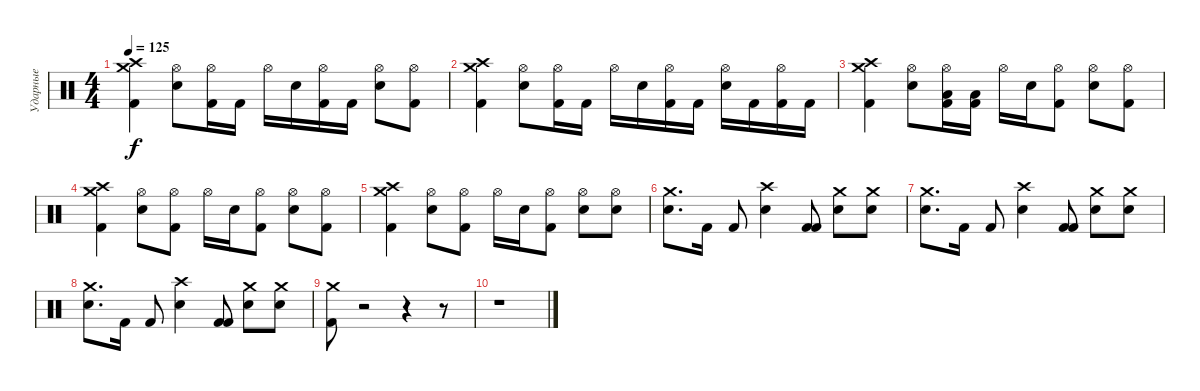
\track ("Ударные" "Ударные") {instrument percussion}
\staff {score}
\articulation defaults
\ts (4 4)
\tempo 125
\clef neutral
\ks c
("Crash high (hit)" "Crash medium (hit)" "Kick (hit) 2").4{dy f} ("Hi-Hat (open)" "Snare (hit) 2").8 ("Hi-Hat (open)" "Kick (hit) 2").16 "Kick (hit) 2".16 "Hi-Hat (open)".16 "Snare (hit) 2".16 ("Hi-Hat (open)" "Kick (hit) 2").16 "Kick (hit) 2".16 ("Hi-Hat (open)" "Snare (hit) 2").8 ("Hi-Hat (open)" "Kick (hit) 2").8 |
("Crash high (hit)" "Crash medium (hit)" "Kick (hit) 2").4 ("Hi-Hat (open)" "Snare (hit) 2").8 ("Hi-Hat (open)" "Kick (hit) 2").16 "Kick (hit) 2".16 "Hi-Hat (open)".16 "Snare (hit) 2".16 ("Hi-Hat (open)" "Kick (hit) 2").16 "Kick (hit) 2".16 ("Hi-Hat (open)" "Snare (hit) 2").16 "Kick (hit) 2".16 ("Hi-Hat (open)" "Kick (hit) 2").16 "Kick (hit) 2".16 |
("Crash high (hit)" "Crash medium (hit)" "Kick (hit) 2").4 ("Hi-Hat (open)" "Snare (hit) 2").8 ("Hi-Hat (open)" "Low Tom (hit)" "Kick (hit) 2").16 ("Low Floor Tom (hit)" "Kick (hit) 2").16 "Hi-Hat (open)".16 "Snare (hit) 2".16 ("Hi-Hat (open)" "Kick (hit) 2").8 ("Hi-Hat (open)" "Snare (hit) 2").8 ("Hi-Hat (open)" "Kick (hit) 2").8 |
("Crash medium (hit)" "Crash high (hit)" "Kick (hit) 2").4 ("Hi-Hat (open)" "Snare (hit) 2").8 ("Hi-Hat (open)" "Kick (hit) 2").8 "Hi-Hat (open)".16 "Snare (hit) 2".16 ("Hi-Hat (open)" "Kick (hit) 2").8 ("Hi-Hat (open)" "Snare (hit) 2").8 ("Hi-Hat (open)" "Kick (hit) 2").8 |
("Crash medium (hit)" "Crash high (hit)" "Kick (hit) 2").4 ("Hi-Hat (open)" "Snare (hit) 2").8 ("Hi-Hat (open)" "Kick (hit) 2").8 "Hi-Hat (open)".16 "Snare (hit) 2".16 ("Hi-Hat (open)" "Kick (hit) 2").8 ("Hi-Hat (open)" "Snare (hit) 2").8 ("Hi-Hat (open)" "Snare (hit) 2").8 |
("Crash medium (hit)" "Snare (hit) 2").8{d} "Kick (hit) 2".16 "Kick (hit) 2".8 ("Crash high (hit)" "Snare (hit) 2").4 ("Kick (hit) 2" "Kick (hit) 2").8 ("Crash medium (hit)" "Snare (hit) 2").8 ("Crash medium (hit)" "Snare (hit) 2").8 |
("Crash medium (hit)" "Snare (hit) 2").8{d} "Kick (hit) 2".16 "Kick (hit) 2".8 ("Crash high (hit)" "Snare (hit) 2").4 ("Kick (hit) 2" "Kick (hit) 2").8 ("Crash medium (hit)" "Snare (hit) 2").8 ("Crash medium (hit)" "Snare (hit) 2").8 |
("Crash medium (hit)" "Snare (hit) 2").8{d} "Kick (hit) 2".16 "Kick (hit) 2".8 ("Crash high (hit)" "Snare (hit) 2").4 ("Kick (hit) 2" "Kick (hit) 2").8 ("Crash medium (hit)" "Snare (hit) 2").8 ("Crash medium (hit)" "Snare (hit) 2").8 |
("Crash medium (hit)" "Kick (hit) 2").8{volume 0} r.2 r.4 r.8 |
r.1
